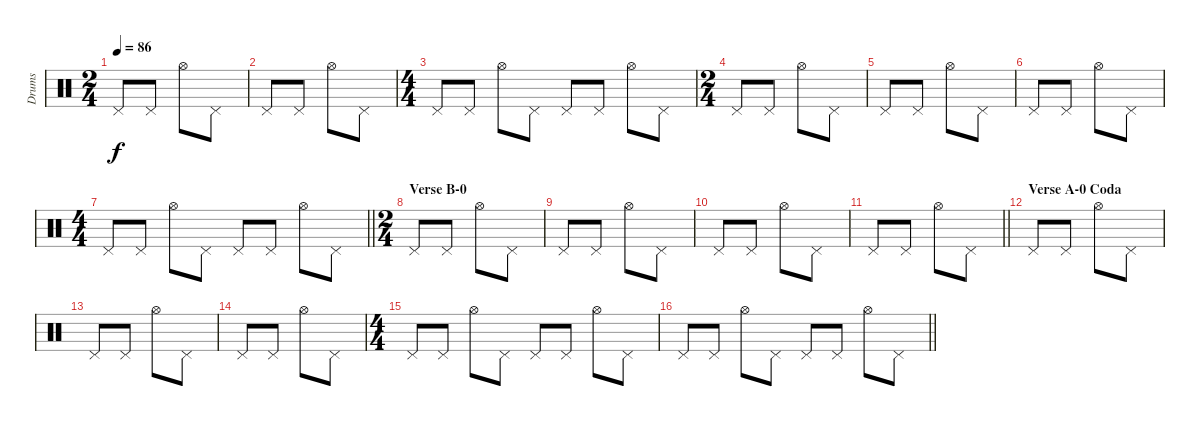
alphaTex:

\track ("Drums" "Drums") {instrument percussion}
\staff {score}
\articulation defaults
\ts (2 4)
\tempo 86
\clef neutral
\ks c "Pedal Hi-Hat (hit)".8{dy f} "Pedal Hi-Hat (hit)".8 "Hi-Hat (open)".8 "Pedal Hi-Hat (hit)".8
|
"Pedal Hi-Hat (hit)".8 "Pedal Hi-Hat (hit)".8 "Hi-Hat (open)".8 "Pedal Hi-Hat (hit)".8 |
\ts (4 4)
"Pedal Hi-Hat (hit)".8 "Pedal Hi-Hat (hit)".8 "Hi-Hat (open)".8 "Pedal Hi-Hat (hit)".8 "Pedal Hi-Hat (hit)".8 "Pedal Hi-Hat (hit)".8 "Hi-Hat (open)".8 "Pedal Hi-Hat (hit)".8 |
\ts (2 4)
"Pedal Hi-Hat (hit)".8 "Pedal Hi-Hat (hit)".8 "Hi-Hat (open)".8 "Pedal Hi-Hat (hit)".8 |
"Pedal Hi-Hat (hit)".8 "Pedal Hi-Hat (hit)".8 "Hi-Hat (open)".8 "Pedal Hi-Hat (hit)".8 |
"Pedal Hi-Hat (hit)".8 "Pedal Hi-Hat (hit)".8 "Hi-Hat (open)".8 "Pedal Hi-Hat (hit)".8 |
\ts (4 4)
\barLineRight lightlight "Pedal Hi-Hat (hit)".8 "Pedal Hi-Hat (hit)".8 "Hi-Hat (open)".8 "Pedal Hi-Hat (hit)".8 "Pedal Hi-Hat (hit)".8 "Pedal Hi-Hat (hit)".8 "Hi-Hat (open)".8 "Pedal Hi-Hat (hit)".8
|
\ts (2 4)
\section ("" "Verse B-0")
"Pedal Hi-Hat (hit)".8 "Pedal Hi-Hat (hit)".8 "Hi-Hat (open)".8 "Pedal Hi-Hat (hit)".8 |
"Pedal Hi-Hat (hit)".8 "Pedal Hi-Hat (hit)".8 "Hi-Hat (open)".8 "Pedal Hi-Hat (hit)".8 |
"Pedal Hi-Hat (hit)".8 "Pedal Hi-Hat (hit)".8 "Hi-Hat (open)".8 "Pedal Hi-Hat (hit)".8 |
\barLineRight lightlight "Pedal Hi-Hat (hit)".8 "Pedal Hi-Hat (hit)".8 "Hi-Hat (open)".8 "Pedal Hi-Hat (hit)".8
|
\section ("" "Verse A-0 Coda")
"Pedal Hi-Hat (hit)".8 "Pedal Hi-Hat (hit)".8 "Hi-Hat (open)".8 "Pedal Hi-Hat (hit)".8 |
"Pedal Hi-Hat (hit)".8 "Pedal Hi-Hat (hit)".8 "Hi-Hat (open)".8 "Pedal Hi-Hat (hit)".8 |
"Pedal Hi-Hat (hit)".8 "Pedal Hi-Hat (hit)".8 "Hi-Hat (open)".8 "Pedal Hi-Hat (hit)".8 |
\ts (4 4)
"Pedal Hi-Hat (hit)".8 "Pedal Hi-Hat (hit)".8 "Hi-Hat (open)".8 "Pedal Hi-Hat (hit)".8 "Pedal Hi-Hat (hit)".8 "Pedal Hi-Hat (hit)".8 "Hi-Hat (open)".8 "Pedal Hi-Hat (hit)".8 |
\barLineRight lightlight "Pedal Hi-Hat (hit)".8 "Pedal Hi-Hat (hit)".8 "Hi-Hat (open)".8 "Pedal Hi-Hat (hit)".8 "Pedal Hi-Hat (hit)".8 "Pedal Hi-Hat (hit)".8 "Hi-Hat (open)".8 "Pedal Hi-Hat (hit)".8
